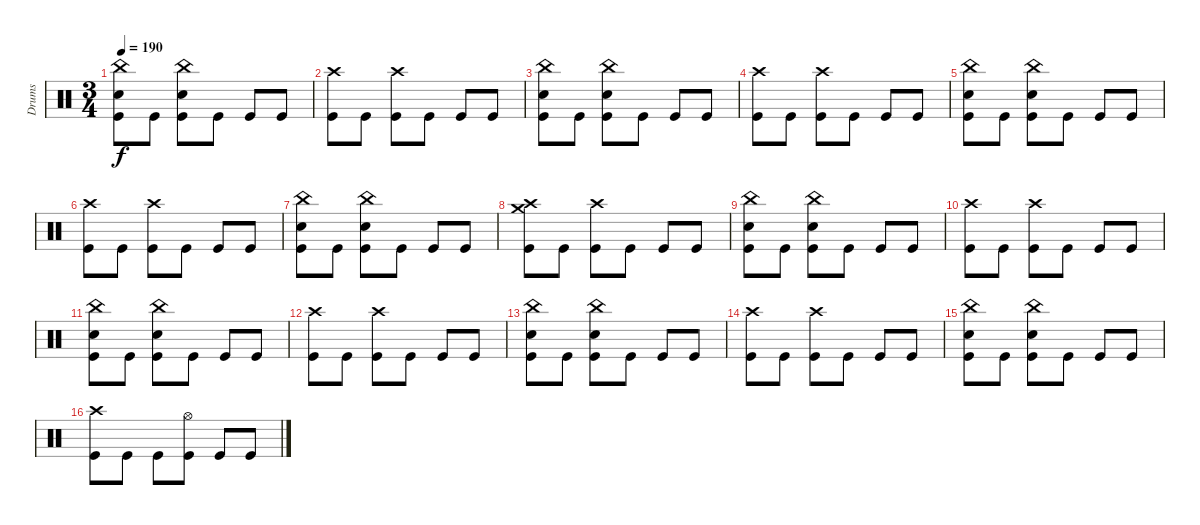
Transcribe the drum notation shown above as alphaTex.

\track ("Drums" "Drums") {instrument percussion}
\staff {score}
\articulation defaults
\ts (3 4)
\tempo 190
\clef neutral
\ks c
("China (hit)" "Snare (hit) 2" "Kick (hit)").8{dy f} "Kick (hit)".8 ("China (hit)" "Snare (hit) 2" "Kick (hit)").8 "Kick (hit)".8 "Kick (hit)".8 "Kick (hit)".8 |
("Crash high (hit)" "Kick (hit)").8 "Kick (hit)".8 ("Crash high (hit)" "Kick (hit)").8 "Kick (hit)".8 "Kick (hit)".8 "Kick (hit)".8 |
("China (hit)" "Snare (hit) 2" "Kick (hit)").8 "Kick (hit)".8 ("China (hit)" "Snare (hit) 2" "Kick (hit)").8 "Kick (hit)".8 "Kick (hit)".8 "Kick (hit)".8 |
("Crash high (hit)" "Kick (hit)").8 "Kick (hit)".8 ("Crash high (hit)" "Kick (hit)").8 "Kick (hit)".8 "Kick (hit)".8 "Kick (hit)".8 |
("China (hit)" "Snare (hit) 2" "Kick (hit)").8 "Kick (hit)".8 ("China (hit)" "Snare (hit) 2" "Kick (hit)").8 "Kick (hit)".8 "Kick (hit)".8 "Kick (hit)".8 |
("Crash high (hit)" "Kick (hit)").8 "Kick (hit)".8 ("Crash high (hit)" "Kick (hit)").8 "Kick (hit)".8 "Kick (hit)".8 "Kick (hit)".8 |
("China (hit)" "Snare (hit) 2" "Kick (hit)").8 "Kick (hit)".8 ("China (hit)" "Snare (hit) 2" "Kick (hit)").8 "Kick (hit)".8 "Kick (hit)".8 "Kick (hit)".8 |
("Crash medium (hit)" "Crash high (hit)" "Kick (hit)").8 "Kick (hit)".8 ("Crash high (hit)" "Kick (hit)").8 "Kick (hit)".8 "Kick (hit)".8 "Kick (hit)".8 |
("China (hit)" "Snare (hit) 2" "Kick (hit)").8 "Kick (hit)".8 ("China (hit)" "Snare (hit) 2" "Kick (hit)").8 "Kick (hit)".8 "Kick (hit)".8 "Kick (hit)".8 |
("Crash high (hit)" "Kick (hit)").8 "Kick (hit)".8 ("Crash high (hit)" "Kick (hit)").8 "Kick (hit)".8 "Kick (hit)".8 "Kick (hit)".8 |
("China (hit)" "Snare (hit) 2" "Kick (hit)").8 "Kick (hit)".8 ("China (hit)" "Snare (hit) 2" "Kick (hit)").8 "Kick (hit)".8 "Kick (hit)".8 "Kick (hit)".8 |
("Crash high (hit)" "Kick (hit)").8 "Kick (hit)".8 ("Crash high (hit)" "Kick (hit)").8 "Kick (hit)".8 "Kick (hit)".8 "Kick (hit)".8 |
("China (hit)" "Snare (hit) 2" "Kick (hit)").8 "Kick (hit)".8 ("China (hit)" "Snare (hit) 2" "Kick (hit)").8 "Kick (hit)".8 "Kick (hit)".8 "Kick (hit)".8 |
("Crash high (hit)" "Kick (hit)").8 "Kick (hit)".8 ("Crash high (hit)" "Kick (hit)").8 "Kick (hit)".8 "Kick (hit)".8 "Kick (hit)".8 |
("China (hit)" "Snare (hit) 2" "Kick (hit)").8 "Kick (hit)".8 ("China (hit)" "Snare (hit) 2" "Kick (hit)").8 "Kick (hit)".8 "Kick (hit)".8 "Kick (hit)".8 |
("Crash high (hit)" "Kick (hit)").8 "Kick (hit)".8 "Kick (hit)".8 ("Hi-Hat (open)" "Kick (hit)").8 "Kick (hit)".8 "Kick (hit)".8
